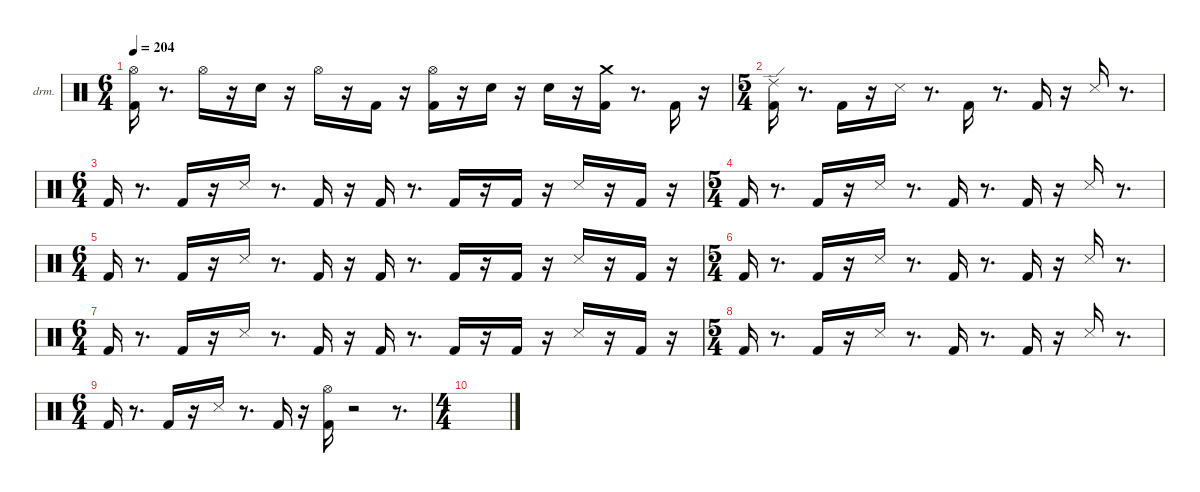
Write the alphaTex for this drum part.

\hideDynamics
\bracketExtendMode nobrackets
\firstSystemTrackNameOrientation horizontal
\track ("drums" "drm.") {instrument percussion}
\staff {score}
\articulation defaults
\ts (6 4)
\tempo 204
\clef neutral
\ks aminor
("Kick (hit) 2" "Hi-Hat (open)"{acc #}).16{dy fff beam Down} r.8{d beam Down} "Hi-Hat (open)"{acc #}.16{dy mp beam Down} r.16{beam Down} "Snare (hit) 2".16{dy ff beam Down} r.16{beam Down} "Hi-Hat (open)"{acc #}.16{dy f beam Down} r.16{beam Down} "Kick (hit) 2".16{dy mf beam Down} r.16{beam Down} ("Kick (hit) 2" "Hi-Hat (open)"{acc #}).16{dy fff beam Down} r.16{beam Down} "Snare (hit) 2".16{dy ff beam Down} r.16{beam Down} "Snare (hit) 2".16{dy p beam Down} r.16{beam Down} ("Kick (hit) 2" "Crash medium (hit)").16{dy ff beam Down} r.8{d beam Down} "Kick (hit) 2".16{dy mf beam Down} r.16{beam Down} |
\ts (5 4)
("Kick (hit) 2" "Ride (edge) 2").16{dy fff beam Down} r.8{d beam Down} "Kick (hit) 2".16{dy f beam Down} r.16{beam Down} "Snare (side stick) 3"{acc #}.16{dy ff beam Down} r.8{d beam Down} "Kick (hit) 2".16{dy f beam Down} r.8{d beam Down} "Kick (hit) 2".16{beam Up} r.16{beam Up} "Snare (side stick) 3"{acc #}.16{dy ff beam Up} r.8{d beam Down} |
\ts (6 4)
"Kick (hit) 2".16{dy f beam Up} r.8{d beam Up} "Kick (hit) 2".16{beam Up} r.16{beam Up} "Snare (side stick) 3"{acc #}.16{dy ff beam Up} r.8{d beam Up} "Kick (hit) 2".16{dy mp beam Up} r.16{beam Down} "Kick (hit) 2".16{dy fff beam Up} r.8{d beam Up} "Kick (hit) 2".16{dy f beam Up} r.16{beam Up} "Kick (hit) 2".16{dy ff beam Up} r.16{beam Up} "Snare (side stick) 3"{acc #}.16{dy fff beam Up} r.16{beam Up} "Kick (hit) 2".16{dy mf beam Up} r.16{beam Down} |
\ts (5 4)
"Kick (hit) 2".16{dy fff beam Up} r.8{d beam Up} "Kick (hit) 2".16{dy f beam Up} r.16{beam Up} "Snare (side stick) 3"{acc #}.16{dy ff beam Up} r.8{d beam Up} "Kick (hit) 2".16{dy f beam Up} r.8{d beam Down} "Kick (hit) 2".16{beam Up} r.16{beam Up} "Snare (side stick) 3"{acc #}.16{dy ff beam Up} r.8{d beam Down} |
\ts (6 4)
"Kick (hit) 2".16{dy f beam Up} r.8{d beam Up} "Kick (hit) 2".16{beam Up} r.16{beam Up} "Snare (side stick) 3"{acc #}.16{dy ff beam Up} r.8{d beam Up} "Kick (hit) 2".16{dy mp beam Up} r.16{beam Down} "Kick (hit) 2".16{dy fff beam Up} r.8{d beam Up} "Kick (hit) 2".16{dy f beam Up} r.16{beam Up} "Kick (hit) 2".16{dy ff beam Up} r.16{beam Up} "Snare (side stick) 3"{acc #}.16{dy fff beam Up} r.16{beam Up} "Kick (hit) 2".16{dy mf beam Up} r.16{beam Down} |
\ts (5 4)
"Kick (hit) 2".16{dy fff beam Up} r.8{d beam Up} "Kick (hit) 2".16{dy f beam Up} r.16{beam Up} "Snare (side stick) 3"{acc #}.16{dy ff beam Up} r.8{d beam Up} "Kick (hit) 2".16{dy f beam Up} r.8{d beam Down} "Kick (hit) 2".16{beam Up} r.16{beam Up} "Snare (side stick) 3"{acc #}.16{dy ff beam Up} r.8{d beam Down} |
\ts (6 4)
"Kick (hit) 2".16{dy f beam Up} r.8{d beam Up} "Kick (hit) 2".16{beam Up} r.16{beam Up} "Snare (side stick) 3"{acc #}.16{dy ff beam Up} r.8{d beam Up} "Kick (hit) 2".16{dy mp beam Up} r.16{beam Down} "Kick (hit) 2".16{dy fff beam Up} r.8{d beam Up} "Kick (hit) 2".16{dy f beam Up} r.16{beam Up} "Kick (hit) 2".16{dy ff beam Up} r.16{beam Up} "Snare (side stick) 3"{acc #}.16{dy fff beam Up} r.16{beam Up} "Kick (hit) 2".16{dy mf beam Up} r.16{beam Down} |
\ts (5 4)
"Kick (hit) 2".16{dy fff beam Up} r.8{d beam Up} "Kick (hit) 2".16{dy f beam Up} r.16{beam Up} "Snare (side stick) 3"{acc #}.16{dy ff beam Up} r.8{d beam Up} "Kick (hit) 2".16{dy f beam Up} r.8{d beam Down} "Kick (hit) 2".16{beam Up} r.16{beam Up} "Snare (side stick) 3"{acc #}.16{dy ff beam Up} r.8{d beam Down} |
\ts (6 4)
"Kick (hit) 2".16{dy f beam Up} r.8{d beam Up} "Kick (hit) 2".16{beam Up} r.16{beam Up} "Snare (side stick) 3"{acc #}.16{dy ff beam Up} r.8{d beam Up} "Kick (hit) 2".16{dy mp beam Up} r.16{beam Down} ("Kick (hit) 2" "Hi-Hat (open)"{acc #}).16{dy fff beam Down} r.2{beam Down} r.8{d beam Down} |
\ts (4 4)
\ks c
